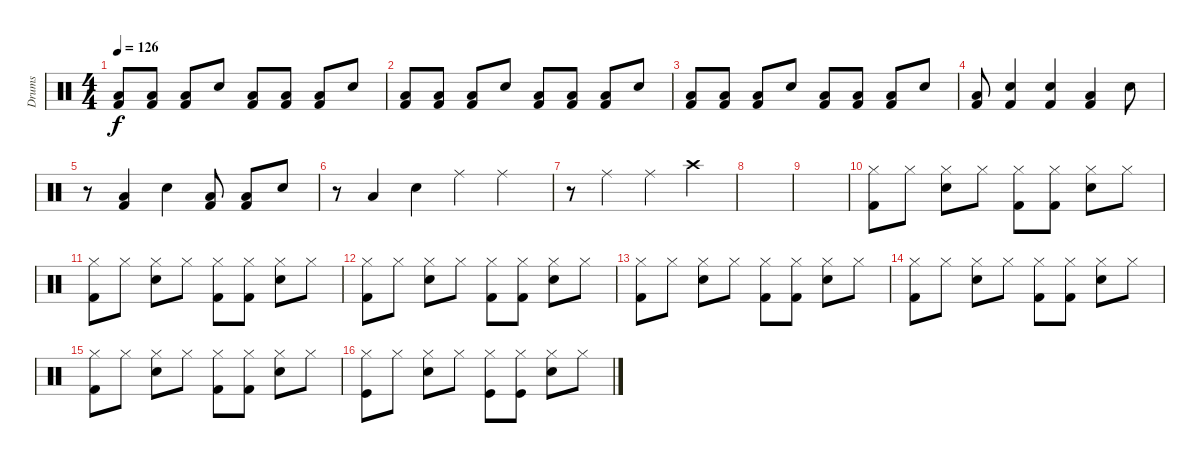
\track ("Drums" "Drums") {instrument percussion}
\staff {score}
\articulation defaults
\ts (4 4)
\tempo 126
\clef neutral
\ks c
("Kick (hit) 2" "Low Floor Tom (hit)").8{dy f} ("Kick (hit) 2" "Low Floor Tom (hit)").8 ("Kick (hit) 2" "Low Floor Tom (hit)").8 "Electric Snare (hit)".8 ("Kick (hit) 2" "Low Floor Tom (hit)").8 ("Kick (hit) 2" "Low Floor Tom (hit)").8 ("Kick (hit) 2" "Low Floor Tom (hit)").8 "Electric Snare (hit)".8 |
("Kick (hit) 2" "Low Floor Tom (hit)").8 ("Kick (hit) 2" "Low Floor Tom (hit)").8 ("Kick (hit) 2" "Low Floor Tom (hit)").8 "Electric Snare (hit)".8 ("Kick (hit) 2" "Low Floor Tom (hit)").8 ("Kick (hit) 2" "Low Floor Tom (hit)").8 ("Kick (hit) 2" "Low Floor Tom (hit)").8 "Electric Snare (hit)".8 |
("Kick (hit) 2" "Low Floor Tom (hit)").8 ("Kick (hit) 2" "Low Floor Tom (hit)").8 ("Kick (hit) 2" "Low Floor Tom (hit)").8 "Electric Snare (hit)".8 ("Kick (hit) 2" "Low Floor Tom (hit)").8 ("Kick (hit) 2" "Low Floor Tom (hit)").8 ("Kick (hit) 2" "Low Floor Tom (hit)").8 "Electric Snare (hit)".8 |
("Kick (hit) 2" "Low Floor Tom (hit)").8 ("Kick (hit) 2" "Electric Snare (hit)").4 ("Kick (hit) 2" "Electric Snare (hit)").4 ("Kick (hit) 2" "Low Floor Tom (hit)").4 "Electric Snare (hit)".8 |
r.8 ("Kick (hit) 2" "Low Floor Tom (hit)").4 "Electric Snare (hit)".4 ("Kick (hit) 2" "Low Floor Tom (hit)").8 ("Kick (hit) 2" "Low Floor Tom (hit)").8 "Electric Snare (hit)".8 |
r.8 "Low Floor Tom (hit)".4 "Electric Snare (hit)".4 "Ride (middle)".4 "Ride (middle)".2 |
r.8 "Ride (middle)".4 "Ride (middle)".4 "Crash high (hit)".4 |
|
|
("Kick (hit) 2" "Hi-Hat (closed)").8 "Hi-Hat (closed)".8 ("Electric Snare (hit)" "Hi-Hat (closed)").8 "Hi-Hat (closed)".8 ("Kick (hit) 2" "Hi-Hat (closed)").8 ("Kick (hit) 2" "Hi-Hat (closed)").8 ("Electric Snare (hit)" "Hi-Hat (closed)").8 "Hi-Hat (closed)".8 |
("Kick (hit) 2" "Hi-Hat (closed)").8 "Hi-Hat (closed)".8 ("Electric Snare (hit)" "Hi-Hat (closed)").8 "Hi-Hat (closed)".8 ("Kick (hit) 2" "Hi-Hat (closed)").8 ("Kick (hit) 2" "Hi-Hat (closed)").8 ("Electric Snare (hit)" "Hi-Hat (closed)").8 "Hi-Hat (closed)".8 |
("Kick (hit) 2" "Hi-Hat (closed)").8 "Hi-Hat (closed)".8 ("Electric Snare (hit)" "Hi-Hat (closed)").8 "Hi-Hat (closed)".8 ("Kick (hit) 2" "Hi-Hat (closed)").8 ("Kick (hit) 2" "Hi-Hat (closed)").8 ("Electric Snare (hit)" "Hi-Hat (closed)").8 "Hi-Hat (closed)".8 |
("Kick (hit) 2" "Hi-Hat (closed)").8 "Hi-Hat (closed)".8 ("Electric Snare (hit)" "Hi-Hat (closed)").8 "Hi-Hat (closed)".8 ("Kick (hit) 2" "Hi-Hat (closed)").8 ("Kick (hit) 2" "Hi-Hat (closed)").8 ("Electric Snare (hit)" "Hi-Hat (closed)").8 "Hi-Hat (closed)".8 |
("Kick (hit) 2" "Hi-Hat (closed)").8 "Hi-Hat (closed)".8 ("Electric Snare (hit)" "Hi-Hat (closed)").8 "Hi-Hat (closed)".8 ("Kick (hit) 2" "Hi-Hat (closed)").8 ("Kick (hit) 2" "Hi-Hat (closed)").8 ("Electric Snare (hit)" "Hi-Hat (closed)").8 "Hi-Hat (closed)".8 |
("Kick (hit) 2" "Hi-Hat (closed)").8 "Hi-Hat (closed)".8 ("Electric Snare (hit)" "Hi-Hat (closed)").8 "Hi-Hat (closed)".8 ("Kick (hit) 2" "Hi-Hat (closed)").8 ("Kick (hit) 2" "Hi-Hat (closed)").8 ("Electric Snare (hit)" "Hi-Hat (closed)").8 "Hi-Hat (closed)".8 |
("Kick (hit)" "Hi-Hat (closed)").8 "Hi-Hat (closed)".8 ("Electric Snare (hit)" "Hi-Hat (closed)").8 "Hi-Hat (closed)".8 ("Kick (hit)" "Hi-Hat (closed)").8 ("Kick (hit)" "Hi-Hat (closed)").8 ("Electric Snare (hit)" "Hi-Hat (closed)").8 "Hi-Hat (closed)".8
